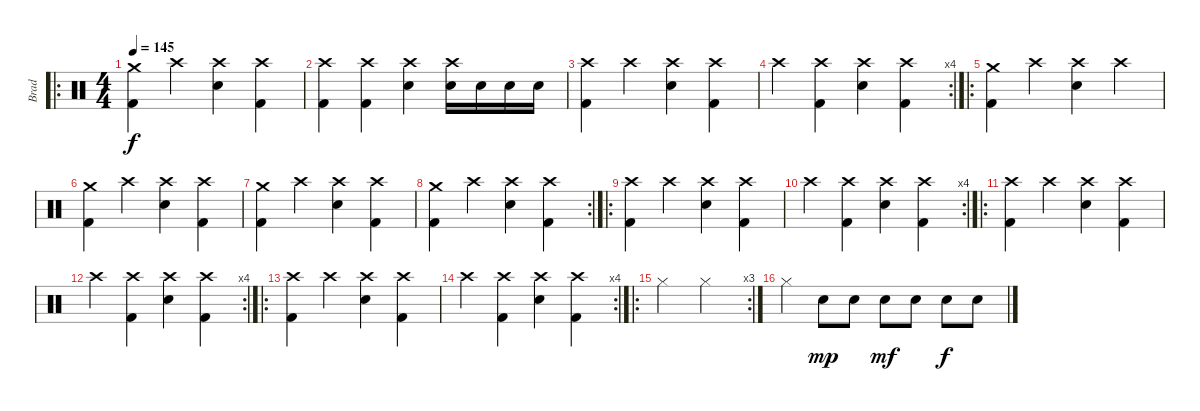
\track ("Brad" "Brad") {instrument percussion}
\staff {score}
\articulation defaults
\ro
\ts (4 4)
\tempo 145
\clef neutral
\ks c
("Kick (hit) 2" "Crash medium (hit)").4{dy f} "Crash high (hit)".4 ("Snare (hit) 2" "Crash high (hit)").4 ("Kick (hit) 2" "Crash high (hit)").4 |
("Kick (hit) 2" "Crash high (hit)").4 ("Kick (hit) 2" "Crash high (hit)").4 ("Snare (hit) 2" "Crash high (hit)").4 ("Snare (hit) 2" "Crash high (hit)").16 "Snare (hit) 2".16 "Snare (hit) 2".16 "Snare (hit) 2".16 |
("Kick (hit) 2" "Crash high (hit)").4 "Crash high (hit)".4 ("Snare (hit) 2" "Crash high (hit)").4 ("Kick (hit) 2" "Crash high (hit)").4 |
\rc 4 "Crash high (hit)".4
("Kick (hit) 2" "Crash high (hit)").4 ("Snare (hit) 2" "Crash high (hit)").4 ("Kick (hit) 2" "Crash high (hit)").4 |
\ro
("Kick (hit) 2" "Crash medium (hit)").4 "Crash high (hit)".4 ("Snare (hit) 2" "Crash high (hit)").4 "Crash high (hit)".4 |
("Kick (hit) 2" "Crash medium (hit)").4 "Crash high (hit)".4 ("Snare (hit) 2" "Crash high (hit)").4 ("Kick (hit) 2" "Crash high (hit)").4 |
("Kick (hit) 2" "Crash medium (hit)").4 "Crash high (hit)".4 ("Snare (hit) 2" "Crash high (hit)").4 ("Kick (hit) 2" "Crash high (hit)").4 |
\rc 2
("Kick (hit) 2" "Crash medium (hit)").4 "Crash high (hit)".4 ("Snare (hit) 2" "Crash high (hit)").4 ("Kick (hit) 2" "Crash high (hit)").4 |
\ro
("Kick (hit) 2" "Crash high (hit)").4 "Crash high (hit)".4 ("Snare (hit) 2" "Crash high (hit)").4 ("Kick (hit) 2" "Crash high (hit)").4 |
\rc 4 "Crash high (hit)".4
("Kick (hit) 2" "Crash high (hit)").4 ("Snare (hit) 2" "Crash high (hit)").4 ("Kick (hit) 2" "Crash high (hit)").4 |
\ro
("Kick (hit) 2" "Crash high (hit)").4 "Crash high (hit)".4 ("Snare (hit) 2" "Crash high (hit)").4 ("Kick (hit) 2" "Crash high (hit)").4 |
\rc 4 "Crash high (hit)".4
("Kick (hit) 2" "Crash high (hit)").4 ("Snare (hit) 2" "Crash high (hit)").4 ("Kick (hit) 2" "Crash high (hit)").4 |
\ro
("Kick (hit) 2" "Crash high (hit)").4 "Crash high (hit)".4 ("Snare (hit) 2" "Crash high (hit)").4 ("Kick (hit) 2" "Crash high (hit)").4 |
\rc 4 "Crash high (hit)".4
("Kick (hit) 2" "Crash high (hit)").4 ("Snare (hit) 2" "Crash high (hit)").4 ("Kick (hit) 2" "Crash high (hit)").4 |
\ro
\rc 3 "Hi-Hat (closed)".2 "Hi-Hat (closed)".2
|
"Hi-Hat (closed)".4 "Snare (hit) 2".8{dy mp} "Snare (hit) 2".8 "Snare (hit) 2".8{dy mf} "Snare (hit) 2".8 "Snare (hit) 2".8{dy f} "Snare (hit) 2".8
